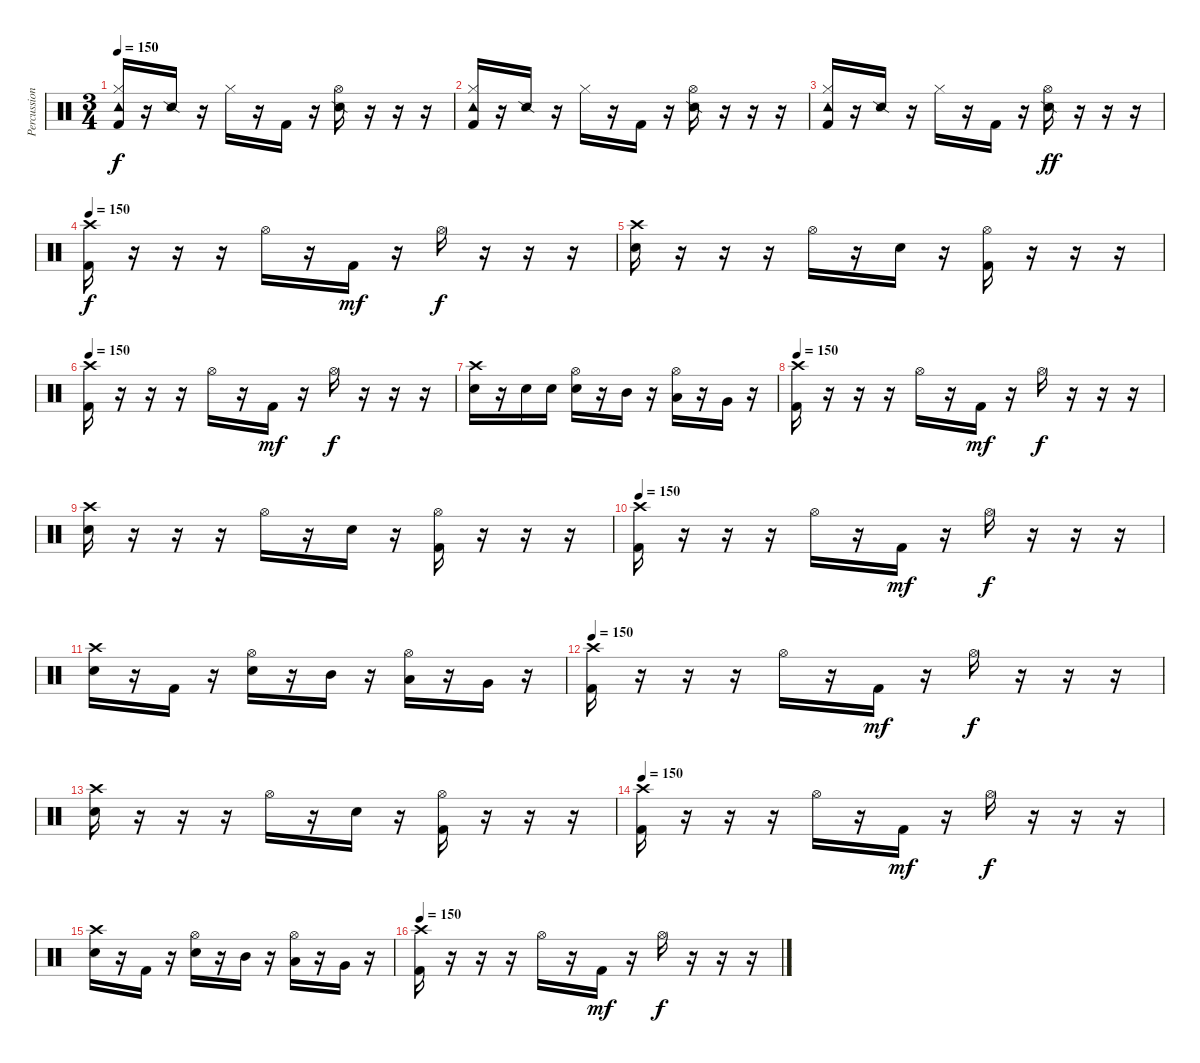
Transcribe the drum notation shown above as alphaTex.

\track ("Percussion" "Percussion") {instrument percussion}
\staff {score}
\articulation defaults
\ts (3 4)
\tempo 150
\clef neutral
\ks c
("Tambourine (hit)" "Hi-Hat (closed)" "Kick (hit) 2").16{dy f} r.16 "Snare (side stick) 2".16 r.16 "Hi-Hat (closed)".16 r.16 "Kick (hit) 2".16 r.16 ("Hi-Hat (open)" "Snare (side stick) 2").16 r.16 r.16 r.16 |
("Tambourine (hit)" "Hi-Hat (closed)" "Kick (hit) 2").16 r.16 "Snare (side stick) 2".16 r.16 "Hi-Hat (closed)".16 r.16 "Kick (hit) 2".16 r.16 ("Hi-Hat (open)" "Snare (side stick) 2").16 r.16 r.16 r.16 |
("Tambourine (hit)" "Hi-Hat (closed)" "Kick (hit) 2").16 r.16 "Snare (side stick) 2".16 r.16 "Hi-Hat (closed)".16 r.16 "Kick (hit) 2".16 r.16 ("Hi-Hat (open)" "Snare (side stick) 2").16{dy ff} r.16 r.16 r.16 |
\tempo 150
("Crash high (hit)" "Kick (hit) 2").16{dy f} r.16 r.16 r.16 "Hi-Hat (open)".16 r.16 "Kick (hit) 2".16{dy mf} r.16 "Hi-Hat (open)".16{dy f} r.16 r.16 r.16 |
("Crash high (hit)" "Electric Snare (hit)").16 r.16 r.16 r.16 "Hi-Hat (open)".16 r.16 "Electric Snare (hit)".16 r.16 ("Hi-Hat (open)" "Kick (hit) 2").16 r.16 r.16 r.16 |
\tempo 150
("Crash high (hit)" "Kick (hit) 2").16 r.16 r.16 r.16 "Hi-Hat (open)".16 r.16 "Kick (hit) 2".16{dy mf} r.16 "Hi-Hat (open)".16{dy f} r.16 r.16 r.16 |
("Crash high (hit)" "Electric Snare (hit)").16 r.16 "Electric Snare (hit)".16 "Electric Snare (hit)".16 ("Hi-Hat (open)" "Electric Snare (hit)").16 r.16 "Mid Tom (hit)".16 r.16 ("Hi-Hat (open)" "Low Tom (hit)").16 r.16 "Very Low Tom (hit)".16 r.16 |
\tempo 150
("Crash high (hit)" "Kick (hit) 2").16 r.16 r.16 r.16 "Hi-Hat (open)".16 r.16 "Kick (hit) 2".16{dy mf} r.16 "Hi-Hat (open)".16{dy f} r.16 r.16 r.16 |
("Crash high (hit)" "Electric Snare (hit)").16 r.16 r.16 r.16 "Hi-Hat (open)".16 r.16 "Electric Snare (hit)".16 r.16 ("Hi-Hat (open)" "Kick (hit) 2").16 r.16 r.16 r.16 |
\tempo 150
("Crash high (hit)" "Kick (hit) 2").16 r.16 r.16 r.16 "Hi-Hat (open)".16 r.16 "Kick (hit) 2".16{dy mf} r.16 "Hi-Hat (open)".16{dy f} r.16 r.16 r.16 |
("Crash high (hit)" "Electric Snare (hit)").16 r.16 "Kick (hit) 2".16 r.16 ("Hi-Hat (open)" "Electric Snare (hit)").16 r.16 "Mid Tom (hit)".16 r.16 ("Hi-Hat (open)" "Low Tom (hit)").16 r.16 "Very Low Tom (hit)".16 r.16 |
\tempo 150
("Crash high (hit)" "Kick (hit) 2").16 r.16 r.16 r.16 "Hi-Hat (open)".16 r.16 "Kick (hit) 2".16{dy mf} r.16 "Hi-Hat (open)".16{dy f} r.16 r.16 r.16 |
("Crash high (hit)" "Electric Snare (hit)").16 r.16 r.16 r.16 "Hi-Hat (open)".16 r.16 "Electric Snare (hit)".16 r.16 ("Hi-Hat (open)" "Kick (hit) 2").16 r.16 r.16 r.16 |
\tempo 150
("Crash high (hit)" "Kick (hit) 2").16 r.16 r.16 r.16 "Hi-Hat (open)".16 r.16 "Kick (hit) 2".16{dy mf} r.16 "Hi-Hat (open)".16{dy f} r.16 r.16 r.16 |
("Crash high (hit)" "Electric Snare (hit)").16 r.16 "Kick (hit) 2".16 r.16 ("Hi-Hat (open)" "Electric Snare (hit)").16 r.16 "Mid Tom (hit)".16 r.16 ("Hi-Hat (open)" "Low Tom (hit)").16 r.16 "Very Low Tom (hit)".16 r.16 |
\tempo 150
("Crash high (hit)" "Kick (hit) 2").16 r.16 r.16 r.16 "Hi-Hat (open)".16 r.16 "Kick (hit) 2".16{dy mf} r.16 "Hi-Hat (open)".16{dy f} r.16 r.16 r.16
